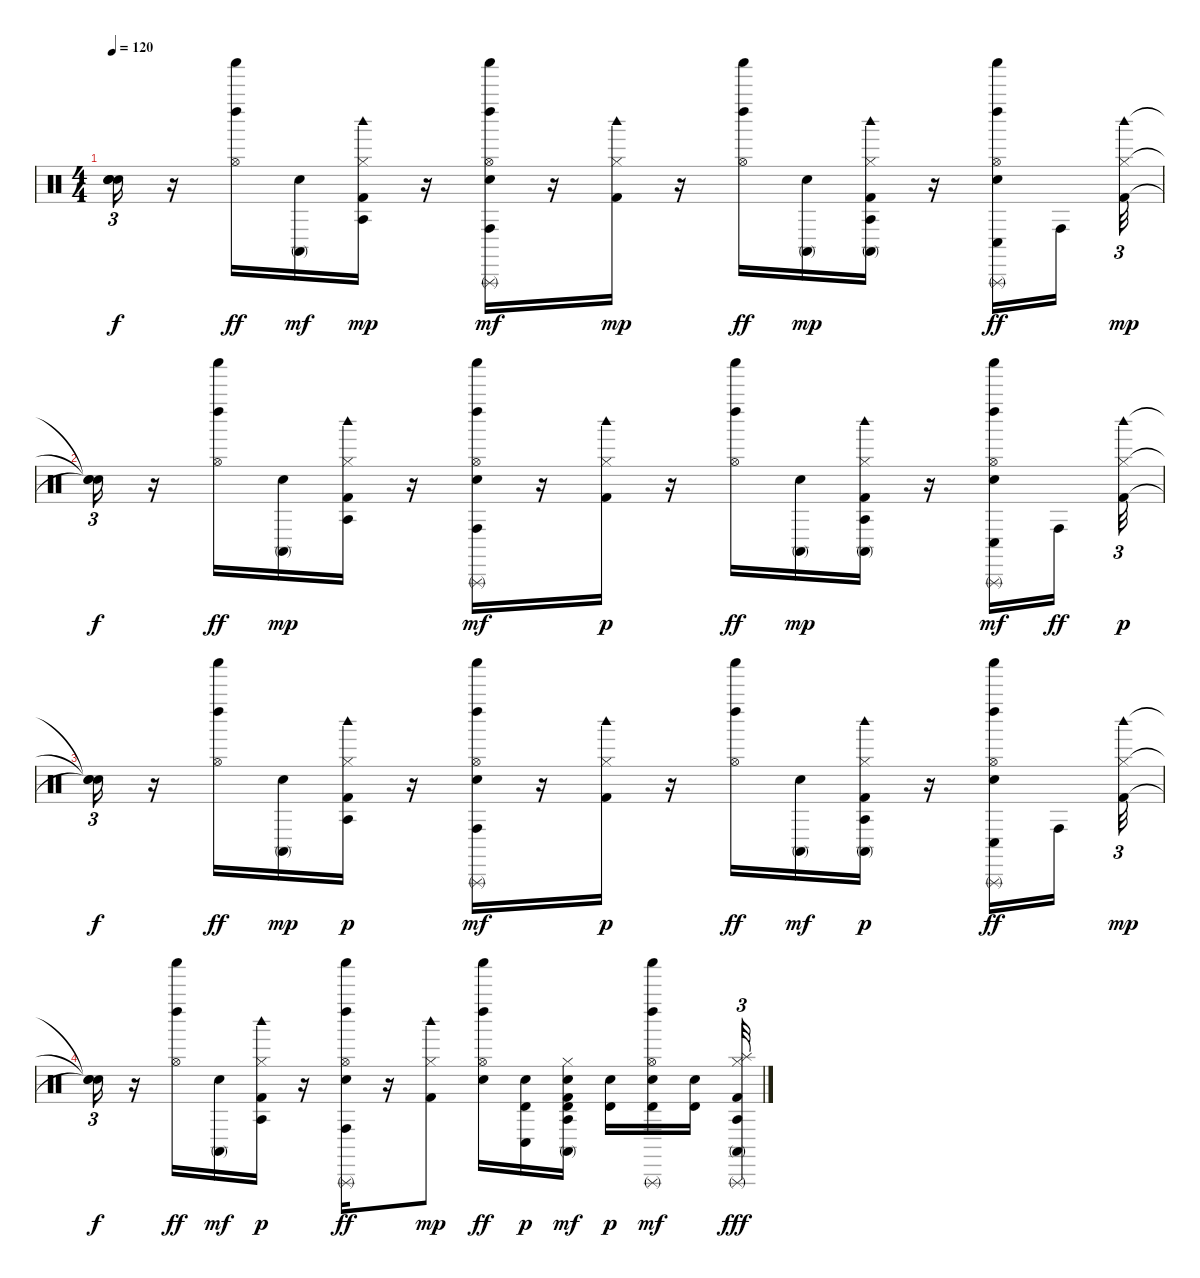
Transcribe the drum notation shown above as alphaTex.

\track "" {instrument percussion}
\staff {score}
\articulation defaults
\ts (4 4)
\tempo 120
\clef neutral
\ks c
("Snare (hit)"{t} "Snare (hit)"{t} "Snare (hit)"{t} "Snare (hit)"{t}).16{tu (3 2) dy f} r.16 ("Shaker (hit)" "Left Maraca (hit)" "Hi-Hat (open)").16{dy ff} ("Electric Snare (hit)" "Conga high (mute)").16{dy mf} ("Kick (hit) 2" "Hi-Hat (closed)" "Agogo tow (hit)" "Woodblock high (hit)").16{dy mp} r.16 ("Shaker (hit)" "Left Maraca (hit)" "Electric Snare (hit)" "Conga high (hit)" "Hi-Hat (open)" "Triangle (rnute)").16{dy mf} r.16 ("Kick (hit) 2" "Hi-Hat (closed)" "Woodblock high (hit)").16{dy mp} r.16 ("Shaker (hit)" "Left Maraca (hit)" "Hi-Hat (open)").16{dy ff} ("Electric Snare (hit)" "Conga high (mute)").16{dy mp} ("Kick (hit) 2" "Conga high (mute)" "Hi-Hat (closed)" "Agogo tow (hit)" "Woodblock high (hit)").16 r.16 ("Shaker (hit)" "Left Maraca (hit)" "Electric Snare (hit)" "Conga low (hit)" "Hi-Hat (open)" "Triangle (rnute)").16{dy ff} "Conga high (hit)".16{beam splitsecondary} ("Kick (hit) 2" "Hi-Hat (closed)" "Woodblock high (hit)").32{tu (3 2) dy mp} |
("Snare (hit)"{t} "Snare (hit)"{t} "Snare (hit)"{t}).16{tu (3 2) dy f} r.16 ("Shaker (hit)" "Left Maraca (hit)" "Hi-Hat (open)").16{dy ff} ("Electric Snare (hit)" "Conga high (mute)").16{dy mp} ("Kick (hit) 2" "Hi-Hat (closed)" "Agogo tow (hit)" "Woodblock high (hit)").16 r.16 ("Shaker (hit)" "Left Maraca (hit)" "Electric Snare (hit)" "Conga high (hit)" "Hi-Hat (open)" "Triangle (rnute)").16{dy mf} r.16 ("Kick (hit) 2" "Hi-Hat (closed)" "Woodblock high (hit)").16{dy p} r.16 ("Shaker (hit)" "Left Maraca (hit)" "Hi-Hat (open)").16{dy ff} ("Electric Snare (hit)" "Conga high (mute)").16{dy mp} ("Kick (hit) 2" "Conga high (mute)" "Hi-Hat (closed)" "Agogo tow (hit)" "Woodblock high (hit)").16 r.16 ("Shaker (hit)" "Left Maraca (hit)" "Electric Snare (hit)" "Conga low (hit)" "Hi-Hat (open)" "Triangle (rnute)").16{dy mf} "Conga high (hit)".16{dy ff beam splitsecondary} ("Kick (hit) 2" "Hi-Hat (closed)" "Woodblock high (hit)").32{tu (3 2) dy p} |
("Snare (hit)"{t} "Snare (hit)"{t} "Snare (hit)"{t}).16{tu (3 2) dy f} r.16 ("Shaker (hit)" "Left Maraca (hit)" "Hi-Hat (open)").16{dy ff} ("Electric Snare (hit)" "Conga high (mute)").16{dy mp} ("Kick (hit) 2" "Hi-Hat (closed)" "Agogo tow (hit)" "Woodblock high (hit)").16{dy p} r.16 ("Shaker (hit)" "Left Maraca (hit)" "Electric Snare (hit)" "Conga high (hit)" "Hi-Hat (open)" "Triangle (rnute)").16{dy mf} r.16 ("Kick (hit) 2" "Hi-Hat (closed)" "Woodblock high (hit)").16{dy p} r.16 ("Shaker (hit)" "Left Maraca (hit)" "Hi-Hat (open)").16{dy ff} ("Electric Snare (hit)" "Conga high (mute)").16{dy mf} ("Kick (hit) 2" "Conga high (mute)" "Hi-Hat (closed)" "Agogo tow (hit)" "Woodblock high (hit)").16{dy p} r.16 ("Shaker (hit)" "Left Maraca (hit)" "Electric Snare (hit)" "Conga low (hit)" "Hi-Hat (open)" "Triangle (rnute)").16{dy ff} "Conga high (hit)".16{beam splitsecondary} ("Kick (hit) 2" "Hi-Hat (closed)" "Woodblock high (hit)").32{tu (3 2) dy mp} |
("Snare (hit)"{t} "Snare (hit)"{t} "Snare (hit)"{t}).16{tu (3 2) dy f} r.16 ("Shaker (hit)" "Left Maraca (hit)" "Hi-Hat (open)").16{dy ff} ("Electric Snare (hit)" "Conga high (mute)").16{dy mf} ("Kick (hit) 2" "Hi-Hat (closed)" "Agogo tow (hit)" "Woodblock high (hit)").16{dy p} r.16 ("Shaker (hit)" "Left Maraca (hit)" "Electric Snare (hit)" "Conga high (hit)" "Hi-Hat (open)" "Triangle (rnute)").16{dy ff} r.16 ("Kick (hit) 2" "Hi-Hat (closed)" "Woodblock high (hit)").8{dy mp} ("Shaker (hit)" "Left Maraca (hit)" "Electric Snare (hit)" "Hi-Hat (open)").16{dy ff} ("Electric Snare (hit)" "Conga low (hit)" "Timbale high (hit)").16{dy p} ("Kick (hit) 2" "Electric Snare (hit)" "Conga high (mute)" "Hi-Hat (closed)" "Timbale high (hit)" "Agogo tow (hit)").16{dy mf} ("Electric Snare (hit)" "Timbale high (hit)").16{dy p} ("Shaker (hit)" "Left Maraca (hit)" "Electric Snare (hit)" "Hi-Hat (open)" "Timbale high (hit)" "Triangle (rnute)").16{dy mf} ("Electric Snare (hit)" "Timbale high (hit)").16{beam splitsecondary} ("Kick (hit) 2" "Conga high (mute)" "Hi-Hat (closed)" "Splash (hit)" "Triangle (rnute)" "Agogo tow (hit)").32{tu (3 2) dy fff}
